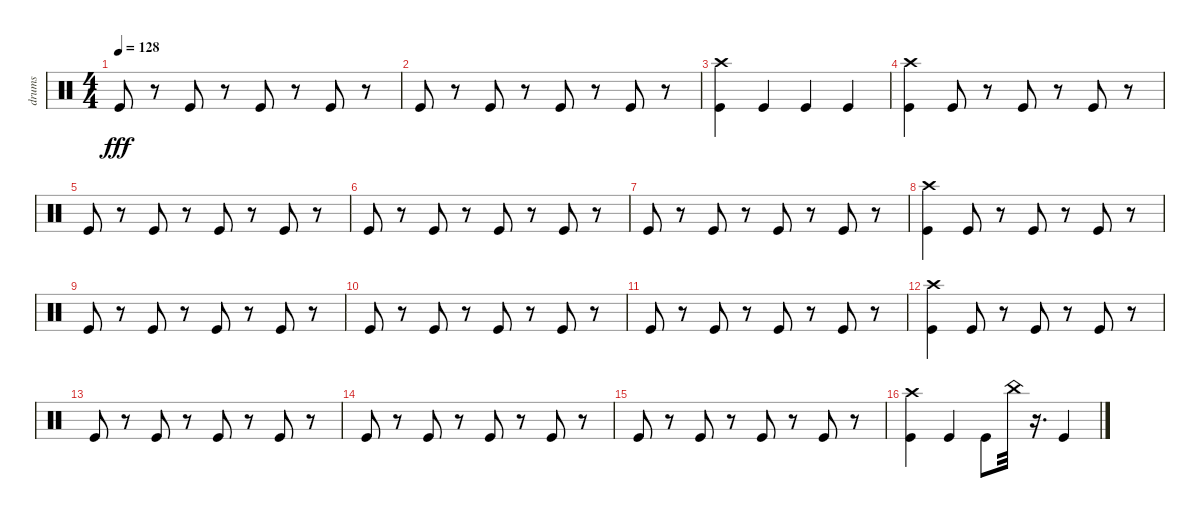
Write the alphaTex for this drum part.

\track ("drums" "drums") {instrument percussion}
\staff {score}
\articulation defaults
\ts (4 4)
\tempo 128
\clef neutral
\ks c "Kick (hit)".8{dy fff}
r.8 "Kick (hit)".8 r.8 "Kick (hit)".8 r.8 "Kick (hit)".8 r.8 |
"Kick (hit)".8 r.8 "Kick (hit)".8 r.8 "Kick (hit)".8 r.8 "Kick (hit)".8 r.8 |
("Kick (hit)" "Crash high (hit)").4 "Kick (hit)".4 "Kick (hit)".4 "Kick (hit)".4 |
("Kick (hit)" "Crash high (hit)").4 "Kick (hit)".8 r.8 "Kick (hit)".8 r.8 "Kick (hit)".8 r.8 |
"Kick (hit)".8 r.8 "Kick (hit)".8 r.8 "Kick (hit)".8 r.8 "Kick (hit)".8 r.8 |
"Kick (hit)".8 r.8 "Kick (hit)".8 r.8 "Kick (hit)".8 r.8 "Kick (hit)".8 r.8 |
"Kick (hit)".8 r.8 "Kick (hit)".8 r.8 "Kick (hit)".8 r.8 "Kick (hit)".8 r.8 |
("Kick (hit)" "Crash high (hit)").4 "Kick (hit)".8 r.8 "Kick (hit)".8 r.8 "Kick (hit)".8 r.8 |
"Kick (hit)".8 r.8 "Kick (hit)".8 r.8 "Kick (hit)".8 r.8 "Kick (hit)".8 r.8 |
"Kick (hit)".8 r.8 "Kick (hit)".8 r.8 "Kick (hit)".8 r.8 "Kick (hit)".8 r.8 |
"Kick (hit)".8 r.8 "Kick (hit)".8 r.8 "Kick (hit)".8 r.8 "Kick (hit)".8 r.8 |
("Kick (hit)" "Crash high (hit)").4 "Kick (hit)".8 r.8 "Kick (hit)".8 r.8 "Kick (hit)".8 r.8 |
"Kick (hit)".8 r.8 "Kick (hit)".8 r.8 "Kick (hit)".8 r.8 "Kick (hit)".8 r.8 |
"Kick (hit)".8 r.8 "Kick (hit)".8 r.8 "Kick (hit)".8 r.8 "Kick (hit)".8 r.8 |
"Kick (hit)".8 r.8 "Kick (hit)".8 r.8 "Kick (hit)".8 r.8 "Kick (hit)".8 r.8 |
("Kick (hit)" "Crash high (hit)").4 "Kick (hit)".4 "Kick (hit)".8 "China (hit)".32 r.16{d} "Kick (hit)".4
